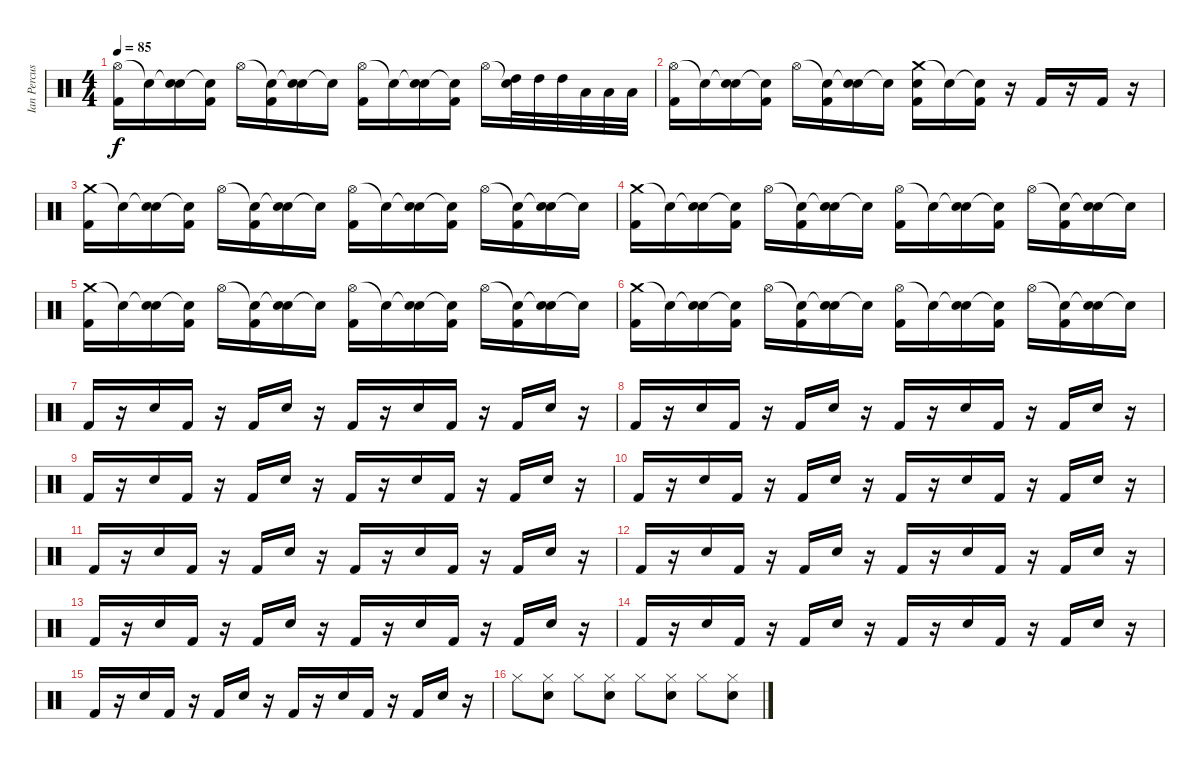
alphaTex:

\track ("Ian Percussion" "Ian Percus") {instrument percussion}
\staff {score}
\articulation defaults
\ts (4 4)
\tempo 85
\clef neutral
\ks c
("Hi-Hat (open)" "Kick (hit) 2").16{dy f} "Snare (hit)"{t}.16 ("Snare (hit)"{t} "Electric Snare (hit)").16 ("Snare (hit)"{t} "Kick (hit) 2").16 "Hi-Hat (open)".16 ("Snare (hit)"{t} "Kick (hit) 2").16 ("Snare (hit)"{t} "Electric Snare (hit)").16 "Snare (hit)"{t}.16 ("Hi-Hat (open)" "Kick (hit) 2").16 "Snare (hit)"{t}.16 ("Snare (hit)"{t} "Electric Snare (hit)").16 ("Snare (hit)"{t} "Kick (hit) 2").16 "Hi-Hat (open)".16 ("Snare (hit)"{t} "High Tom (hit)").32 "High Tom (hit)".32 "High Tom (hit)".32 "Low Tom (hit)".32 "Low Tom (hit)".32 "Low Tom (hit)".32 |
("Hi-Hat (open)" "Kick (hit) 2").16 "Snare (hit)"{t}.16 ("Snare (hit)"{t} "Electric Snare (hit)").16 ("Snare (hit)"{t} "Kick (hit) 2").16 "Hi-Hat (open)".16 ("Snare (hit)"{t} "Kick (hit) 2").16 ("Snare (hit)"{t} "Electric Snare (hit)").16 "Snare (hit)"{t}.16 ("Crash medium (hit)" "Electric Snare (hit)" "Kick (hit) 2").16 "Snare (hit)"{t}.16 ("Snare (hit)"{t} "Kick (hit) 2").16 r.16 "Kick (hit) 2".16 r.16 "Kick (hit) 2".16 r.16 |
("Crash medium (hit)" "Kick (hit) 2").16 "Snare (hit)"{t}.16 ("Snare (hit)"{t} "Electric Snare (hit)").16 ("Snare (hit)"{t} "Kick (hit) 2").16 "Hi-Hat (open)".16 ("Snare (hit)"{t} "Kick (hit) 2").16 ("Snare (hit)"{t} "Electric Snare (hit)").16 "Snare (hit)"{t}.16 ("Hi-Hat (open)" "Kick (hit) 2").16 "Snare (hit)"{t}.16 ("Snare (hit)"{t} "Electric Snare (hit)").16 ("Snare (hit)"{t} "Kick (hit) 2").16 "Hi-Hat (open)".16 ("Snare (hit)"{t} "Kick (hit) 2").16 ("Snare (hit)"{t} "Electric Snare (hit)").16 "Snare (hit)"{t}.16 |
("Crash medium (hit)" "Kick (hit) 2").16 "Snare (hit)"{t}.16 ("Snare (hit)"{t} "Electric Snare (hit)").16 ("Snare (hit)"{t} "Kick (hit) 2").16 "Hi-Hat (open)".16 ("Snare (hit)"{t} "Kick (hit) 2").16 ("Snare (hit)"{t} "Electric Snare (hit)").16 "Snare (hit)"{t}.16 ("Hi-Hat (open)" "Kick (hit) 2").16 "Snare (hit)"{t}.16 ("Snare (hit)"{t} "Electric Snare (hit)").16 ("Snare (hit)"{t} "Kick (hit) 2").16 "Hi-Hat (open)".16 ("Snare (hit)"{t} "Kick (hit) 2").16 ("Snare (hit)"{t} "Electric Snare (hit)").16 "Snare (hit)"{t}.16 |
("Crash medium (hit)" "Kick (hit) 2").16 "Snare (hit)"{t}.16 ("Snare (hit)"{t} "Electric Snare (hit)").16 ("Snare (hit)"{t} "Kick (hit) 2").16 "Hi-Hat (open)".16 ("Snare (hit)"{t} "Kick (hit) 2").16 ("Snare (hit)"{t} "Electric Snare (hit)").16 "Snare (hit)"{t}.16 ("Hi-Hat (open)" "Kick (hit) 2").16 "Snare (hit)"{t}.16 ("Snare (hit)"{t} "Electric Snare (hit)").16 ("Snare (hit)"{t} "Kick (hit) 2").16 "Hi-Hat (open)".16 ("Snare (hit)"{t} "Kick (hit) 2").16 ("Snare (hit)"{t} "Electric Snare (hit)").16 "Snare (hit)"{t}.16 |
("Crash medium (hit)" "Kick (hit) 2").16 "Snare (hit)"{t}.16 ("Snare (hit)"{t} "Electric Snare (hit)").16 ("Snare (hit)"{t} "Kick (hit) 2").16 "Hi-Hat (open)".16 ("Snare (hit)"{t} "Kick (hit) 2").16 ("Snare (hit)"{t} "Electric Snare (hit)").16 "Snare (hit)"{t}.16 ("Hi-Hat (open)" "Kick (hit) 2").16 "Snare (hit)"{t}.16 ("Snare (hit)"{t} "Electric Snare (hit)").16 ("Snare (hit)"{t} "Kick (hit) 2").16 "Hi-Hat (open)".16 ("Snare (hit)"{t} "Kick (hit) 2").16 ("Snare (hit)"{t} "Electric Snare (hit)").16 "Snare (hit)"{t}.16 |
"Kick (hit) 2".16 r.16 "Hand Clap (hit)".16 "Kick (hit) 2".16 r.16 "Kick (hit) 2".16 "Hand Clap (hit)".16 r.16 "Kick (hit) 2".16 r.16 "Hand Clap (hit)".16 "Kick (hit) 2".16 r.16 "Kick (hit) 2".16 "Hand Clap (hit)".16 r.16 |
"Kick (hit) 2".16 r.16 "Hand Clap (hit)".16 "Kick (hit) 2".16 r.16 "Kick (hit) 2".16 "Hand Clap (hit)".16 r.16 "Kick (hit) 2".16 r.16 "Hand Clap (hit)".16 "Kick (hit) 2".16 r.16 "Kick (hit) 2".16 "Hand Clap (hit)".16 r.16 |
"Kick (hit) 2".16 r.16 "Hand Clap (hit)".16 "Kick (hit) 2".16 r.16 "Kick (hit) 2".16 "Hand Clap (hit)".16 r.16 "Kick (hit) 2".16 r.16 "Hand Clap (hit)".16 "Kick (hit) 2".16 r.16 "Kick (hit) 2".16 "Hand Clap (hit)".16 r.16 |
"Kick (hit) 2".16 r.16 "Hand Clap (hit)".16 "Kick (hit) 2".16 r.16 "Kick (hit) 2".16 "Hand Clap (hit)".16 r.16 "Kick (hit) 2".16 r.16 "Hand Clap (hit)".16 "Kick (hit) 2".16 r.16 "Kick (hit) 2".16 "Hand Clap (hit)".16 r.16 |
"Kick (hit) 2".16 r.16 "Hand Clap (hit)".16 "Kick (hit) 2".16 r.16 "Kick (hit) 2".16 "Hand Clap (hit)".16 r.16 "Kick (hit) 2".16 r.16 "Hand Clap (hit)".16 "Kick (hit) 2".16 r.16 "Kick (hit) 2".16 "Hand Clap (hit)".16 r.16 |
"Kick (hit) 2".16 r.16 "Hand Clap (hit)".16 "Kick (hit) 2".16 r.16 "Kick (hit) 2".16 "Hand Clap (hit)".16 r.16 "Kick (hit) 2".16 r.16 "Hand Clap (hit)".16 "Kick (hit) 2".16 r.16 "Kick (hit) 2".16 "Hand Clap (hit)".16 r.16 |
"Kick (hit) 2".16 r.16 "Hand Clap (hit)".16 "Kick (hit) 2".16 r.16 "Kick (hit) 2".16 "Hand Clap (hit)".16 r.16 "Kick (hit) 2".16 r.16 "Hand Clap (hit)".16 "Kick (hit) 2".16 r.16 "Kick (hit) 2".16 "Hand Clap (hit)".16 r.16 |
"Kick (hit) 2".16 r.16 "Hand Clap (hit)".16 "Kick (hit) 2".16 r.16 "Kick (hit) 2".16 "Hand Clap (hit)".16 r.16 "Kick (hit) 2".16 r.16 "Hand Clap (hit)".16 "Kick (hit) 2".16 r.16 "Kick (hit) 2".16 "Hand Clap (hit)".16 r.16 |
"Kick (hit) 2".16 r.16 "Hand Clap (hit)".16 "Kick (hit) 2".16 r.16 "Kick (hit) 2".16 "Hand Clap (hit)".16 r.16 "Kick (hit) 2".16 r.16 "Hand Clap (hit)".16 "Kick (hit) 2".16 r.16 "Kick (hit) 2".16 "Hand Clap (hit)".16 r.16 |
"Hi-Hat (closed)".8 ("Hand Clap (hit)" "Hi-Hat (closed)").8 "Hi-Hat (closed)".8 ("Hand Clap (hit)" "Hi-Hat (closed)").8 "Hi-Hat (closed)".8 ("Hand Clap (hit)" "Hi-Hat (closed)").8 "Hi-Hat (closed)".8 ("Hand Clap (hit)" "Hi-Hat (closed)").8
